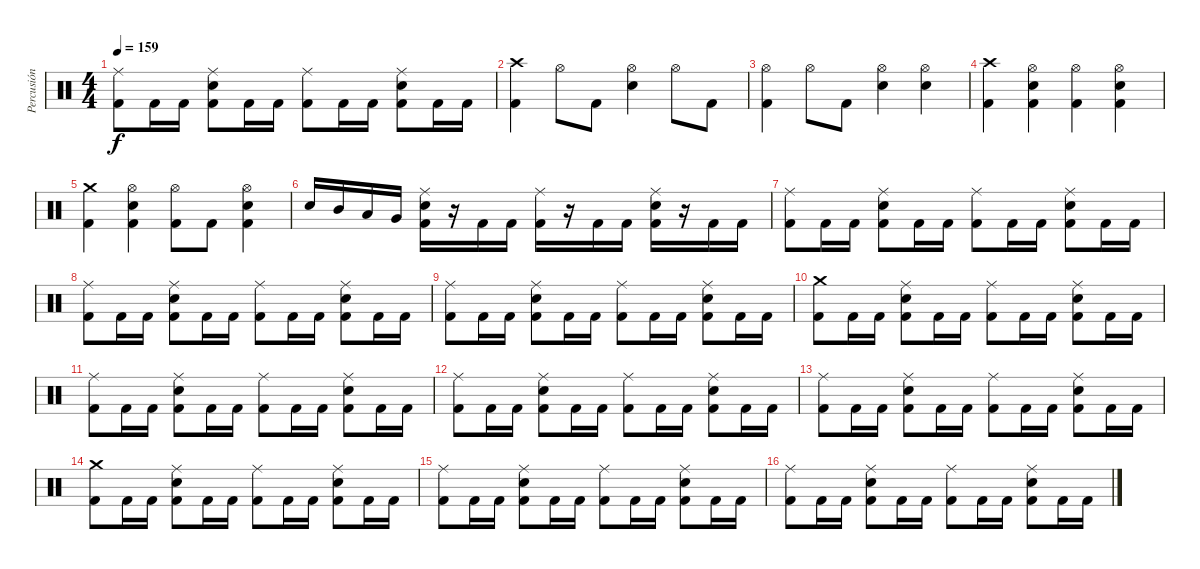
\track ("Percusión" "Percusión") {instrument percussion}
\staff {score}
\articulation defaults
\ts (4 4)
\tempo 159
\clef neutral
\ks c
("Ride (middle)" "Kick (hit) 2").8{dy f} "Kick (hit) 2".16 "Kick (hit) 2".16 ("Ride (middle)" "Electric Snare (hit)" "Kick (hit) 2").8 "Kick (hit) 2".16 "Kick (hit) 2".16 ("Ride (middle)" "Kick (hit) 2").8 "Kick (hit) 2".16 "Kick (hit) 2".16 ("Ride (middle)" "Electric Snare (hit)" "Kick (hit) 2").8 "Kick (hit) 2".16 "Kick (hit) 2".16 |
("Crash high (hit)" "Kick (hit) 2").4 "Hi-Hat (open)".8 "Kick (hit) 2".8 ("Hi-Hat (open)" "Electric Snare (hit)").4 "Hi-Hat (open)".8 "Kick (hit) 2".8 |
("Hi-Hat (open)" "Kick (hit) 2").4 "Hi-Hat (open)".8 "Kick (hit) 2".8 ("Hi-Hat (open)" "Electric Snare (hit)").4 ("Hi-Hat (open)" "Electric Snare (hit)").4 |
("Crash high (hit)" "Kick (hit) 2").4 ("Hi-Hat (open)" "Electric Snare (hit)" "Kick (hit) 2").4 ("Hi-Hat (open)" "Kick (hit) 2").4 ("Hi-Hat (open)" "Electric Snare (hit)" "Kick (hit) 2").4 |
("Crash medium (hit)" "Kick (hit) 2").4 ("Hi-Hat (open)" "Electric Snare (hit)" "Kick (hit) 2").4 ("Hi-Hat (open)" "Kick (hit) 2").8 "Kick (hit) 2".8 ("Hi-Hat (open)" "Electric Snare (hit)" "Kick (hit) 2").4 |
"Electric Snare (hit)".16 "Mid Tom (hit)".16 "Low Tom (hit)".16 "Very Low Tom (hit)".16 ("Ride (middle)" "Electric Snare (hit)" "Kick (hit) 2").16 r.16 "Kick (hit) 2".16 "Kick (hit) 2".16 ("Ride (middle)" "Kick (hit) 2").16 r.16 "Kick (hit) 2".16 "Kick (hit) 2".16 ("Ride (middle)" "Electric Snare (hit)" "Kick (hit) 2").16 r.16 "Kick (hit) 2".16 "Kick (hit) 2".16 |
("Ride (middle)" "Kick (hit) 2").8 "Kick (hit) 2".16 "Kick (hit) 2".16 ("Ride (middle)" "Electric Snare (hit)" "Kick (hit) 2").8 "Kick (hit) 2".16 "Kick (hit) 2".16 ("Ride (middle)" "Kick (hit) 2").8 "Kick (hit) 2".16 "Kick (hit) 2".16 ("Ride (middle)" "Electric Snare (hit)" "Kick (hit) 2").8 "Kick (hit) 2".16 "Kick (hit) 2".16 |
("Ride (middle)" "Kick (hit) 2").8 "Kick (hit) 2".16 "Kick (hit) 2".16 ("Ride (middle)" "Electric Snare (hit)" "Kick (hit) 2").8 "Kick (hit) 2".16 "Kick (hit) 2".16 ("Ride (middle)" "Kick (hit) 2").8 "Kick (hit) 2".16 "Kick (hit) 2".16 ("Ride (middle)" "Electric Snare (hit)" "Kick (hit) 2").8 "Kick (hit) 2".16 "Kick (hit) 2".16 |
("Ride (middle)" "Kick (hit) 2").8 "Kick (hit) 2".16 "Kick (hit) 2".16 ("Ride (middle)" "Electric Snare (hit)" "Kick (hit) 2").8 "Kick (hit) 2".16 "Kick (hit) 2".16 ("Ride (middle)" "Kick (hit) 2").8 "Kick (hit) 2".16 "Kick (hit) 2".16 ("Ride (middle)" "Electric Snare (hit)" "Kick (hit) 2").8 "Kick (hit) 2".16 "Kick (hit) 2".16 |
("Crash medium (hit)" "Kick (hit) 2").8 "Kick (hit) 2".16 "Kick (hit) 2".16 ("Ride (middle)" "Electric Snare (hit)" "Kick (hit) 2").8 "Kick (hit) 2".16 "Kick (hit) 2".16 ("Ride (middle)" "Kick (hit) 2").8 "Kick (hit) 2".16 "Kick (hit) 2".16 ("Ride (middle)" "Electric Snare (hit)" "Kick (hit) 2").8 "Kick (hit) 2".16 "Kick (hit) 2".16 |
("Ride (middle)" "Kick (hit) 2").8 "Kick (hit) 2".16 "Kick (hit) 2".16 ("Ride (middle)" "Electric Snare (hit)" "Kick (hit) 2").8 "Kick (hit) 2".16 "Kick (hit) 2".16 ("Ride (middle)" "Kick (hit) 2").8 "Kick (hit) 2".16 "Kick (hit) 2".16 ("Ride (middle)" "Electric Snare (hit)" "Kick (hit) 2").8 "Kick (hit) 2".16 "Kick (hit) 2".16 |
("Ride (middle)" "Kick (hit) 2").8 "Kick (hit) 2".16 "Kick (hit) 2".16 ("Ride (middle)" "Electric Snare (hit)" "Kick (hit) 2").8 "Kick (hit) 2".16 "Kick (hit) 2".16 ("Ride (middle)" "Kick (hit) 2").8 "Kick (hit) 2".16 "Kick (hit) 2".16 ("Ride (middle)" "Electric Snare (hit)" "Kick (hit) 2").8 "Kick (hit) 2".16 "Kick (hit) 2".16 |
("Ride (middle)" "Kick (hit) 2").8 "Kick (hit) 2".16 "Kick (hit) 2".16 ("Ride (middle)" "Electric Snare (hit)" "Kick (hit) 2").8 "Kick (hit) 2".16 "Kick (hit) 2".16 ("Ride (middle)" "Kick (hit) 2").8 "Kick (hit) 2".16 "Kick (hit) 2".16 ("Ride (middle)" "Electric Snare (hit)" "Kick (hit) 2").8 "Kick (hit) 2".16 "Kick (hit) 2".16 |
("Crash medium (hit)" "Kick (hit) 2").8 "Kick (hit) 2".16 "Kick (hit) 2".16 ("Ride (middle)" "Electric Snare (hit)" "Kick (hit) 2").8 "Kick (hit) 2".16 "Kick (hit) 2".16 ("Ride (middle)" "Kick (hit) 2").8 "Kick (hit) 2".16 "Kick (hit) 2".16 ("Ride (middle)" "Electric Snare (hit)" "Kick (hit) 2").8 "Kick (hit) 2".16 "Kick (hit) 2".16 |
("Ride (middle)" "Kick (hit) 2").8 "Kick (hit) 2".16 "Kick (hit) 2".16 ("Ride (middle)" "Electric Snare (hit)" "Kick (hit) 2").8 "Kick (hit) 2".16 "Kick (hit) 2".16 ("Ride (middle)" "Kick (hit) 2").8 "Kick (hit) 2".16 "Kick (hit) 2".16 ("Ride (middle)" "Electric Snare (hit)" "Kick (hit) 2").8 "Kick (hit) 2".16 "Kick (hit) 2".16 |
("Ride (middle)" "Kick (hit) 2").8 "Kick (hit) 2".16 "Kick (hit) 2".16 ("Ride (middle)" "Electric Snare (hit)" "Kick (hit) 2").8 "Kick (hit) 2".16 "Kick (hit) 2".16 ("Ride (middle)" "Kick (hit) 2").8 "Kick (hit) 2".16 "Kick (hit) 2".16 ("Ride (middle)" "Electric Snare (hit)" "Kick (hit) 2").8 "Kick (hit) 2".16 "Kick (hit) 2".16
